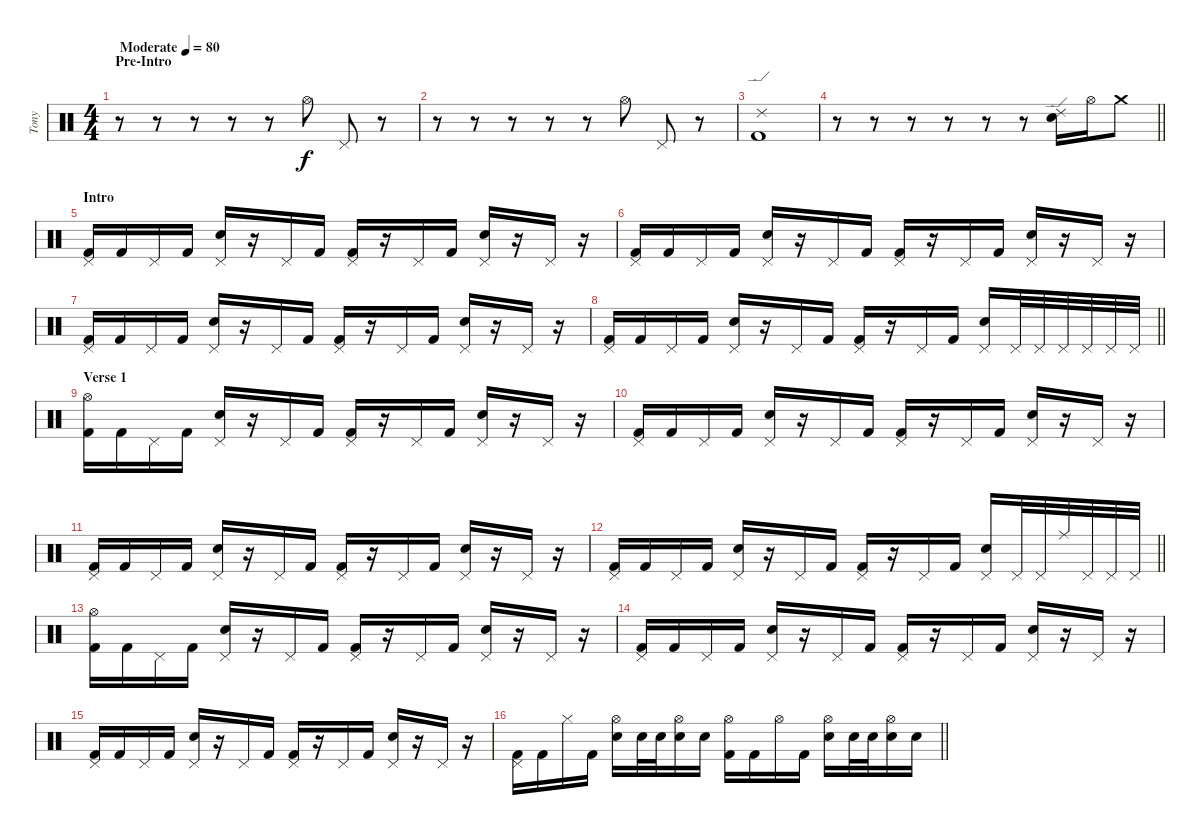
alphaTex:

\track ("Tony" "Tony") {instrument percussion}
\staff {score}
\articulation defaults
\ts (4 4)
\section ("" "Pre-Intro")
\tempo (80 "Moderate")
\clef neutral
\ks c
r.8{dy f} r.8 r.8 r.8 r.8 "Hi-Hat (open)".8 "Pedal Hi-Hat (hit)".8 r.8 |
r.8 r.8 r.8 r.8 r.8 "Hi-Hat (open)".8 "Pedal Hi-Hat (hit)".8 r.8 |
("Ride (edge) 2" "Kick (hit) 2").1 |
\barLineRight lightlight
r.8 r.8 r.8 r.8 r.8 r.8 ("Ride (edge) 2" "Electric Snare (hit)").16 "Hi-Hat (open)".16 "Crash medium (hit)".8 |
\section ("" "Intro")
("Pedal Hi-Hat (hit)" "Kick (hit) 2").16 "Kick (hit) 2".16 "Pedal Hi-Hat (hit)".16 "Kick (hit) 2".16 ("Pedal Hi-Hat (hit)" "Electric Snare (hit)").16 r.16 "Pedal Hi-Hat (hit)".16 "Kick (hit) 2".16 ("Pedal Hi-Hat (hit)" "Kick (hit) 2").16 r.16 "Pedal Hi-Hat (hit)".16 "Kick (hit) 2".16 ("Pedal Hi-Hat (hit)" "Electric Snare (hit)").16 r.16 "Pedal Hi-Hat (hit)".16 r.16 |
("Pedal Hi-Hat (hit)" "Kick (hit) 2").16 "Kick (hit) 2".16 "Pedal Hi-Hat (hit)".16 "Kick (hit) 2".16 ("Pedal Hi-Hat (hit)" "Electric Snare (hit)").16 r.16 "Pedal Hi-Hat (hit)".16 "Kick (hit) 2".16 ("Pedal Hi-Hat (hit)" "Kick (hit) 2").16 r.16 "Pedal Hi-Hat (hit)".16 "Kick (hit) 2".16 ("Pedal Hi-Hat (hit)" "Electric Snare (hit)").16 r.16 "Pedal Hi-Hat (hit)".16 r.16 |
("Pedal Hi-Hat (hit)" "Kick (hit) 2").16 "Kick (hit) 2".16 "Pedal Hi-Hat (hit)".16 "Kick (hit) 2".16 ("Pedal Hi-Hat (hit)" "Electric Snare (hit)").16 r.16 "Pedal Hi-Hat (hit)".16 "Kick (hit) 2".16 ("Pedal Hi-Hat (hit)" "Kick (hit) 2").16 r.16 "Pedal Hi-Hat (hit)".16 "Kick (hit) 2".16 ("Pedal Hi-Hat (hit)" "Electric Snare (hit)").16 r.16 "Pedal Hi-Hat (hit)".16 r.16 |
\barLineRight lightlight
("Pedal Hi-Hat (hit)" "Kick (hit) 2").16 "Kick (hit) 2".16 "Pedal Hi-Hat (hit)".16 "Kick (hit) 2".16 ("Pedal Hi-Hat (hit)" "Electric Snare (hit)").16 r.16 "Pedal Hi-Hat (hit)".16 "Kick (hit) 2".16 ("Pedal Hi-Hat (hit)" "Kick (hit) 2").16 r.16 "Pedal Hi-Hat (hit)".16 "Kick (hit) 2".16 ("Pedal Hi-Hat (hit)" "Electric Snare (hit)").16 "Pedal Hi-Hat (hit)".32 "Pedal Hi-Hat (hit)".32 "Pedal Hi-Hat (hit)".32 "Pedal Hi-Hat (hit)".32 "Pedal Hi-Hat (hit)".32 "Pedal Hi-Hat (hit)".32 |
\section ("" "Verse 1")
("Hi-Hat (open)" "Kick (hit) 2").16 "Kick (hit) 2".16 "Pedal Hi-Hat (hit)".16 "Kick (hit) 2".16 ("Pedal Hi-Hat (hit)" "Electric Snare (hit)").16 r.16 "Pedal Hi-Hat (hit)".16 "Kick (hit) 2".16 ("Pedal Hi-Hat (hit)" "Kick (hit) 2").16 r.16 "Pedal Hi-Hat (hit)".16 "Kick (hit) 2".16 ("Pedal Hi-Hat (hit)" "Electric Snare (hit)").16 r.16 "Pedal Hi-Hat (hit)".16 r.16 |
("Pedal Hi-Hat (hit)" "Kick (hit) 2").16 "Kick (hit) 2".16 "Pedal Hi-Hat (hit)".16 "Kick (hit) 2".16 ("Pedal Hi-Hat (hit)" "Electric Snare (hit)").16 r.16 "Pedal Hi-Hat (hit)".16 "Kick (hit) 2".16 ("Pedal Hi-Hat (hit)" "Kick (hit) 2").16 r.16 "Pedal Hi-Hat (hit)".16 "Kick (hit) 2".16 ("Pedal Hi-Hat (hit)" "Electric Snare (hit)").16 r.16 "Pedal Hi-Hat (hit)".16 r.16 |
("Pedal Hi-Hat (hit)" "Kick (hit) 2").16 "Kick (hit) 2".16 "Pedal Hi-Hat (hit)".16 "Kick (hit) 2".16 ("Pedal Hi-Hat (hit)" "Electric Snare (hit)").16 r.16 "Pedal Hi-Hat (hit)".16 "Kick (hit) 2".16 ("Pedal Hi-Hat (hit)" "Kick (hit) 2").16 r.16 "Pedal Hi-Hat (hit)".16 "Kick (hit) 2".16 ("Pedal Hi-Hat (hit)" "Electric Snare (hit)").16 r.16 "Pedal Hi-Hat (hit)".16 r.16 |
\barLineRight lightlight
("Pedal Hi-Hat (hit)" "Kick (hit) 2").16 "Kick (hit) 2".16 "Pedal Hi-Hat (hit)".16 "Kick (hit) 2".16 ("Pedal Hi-Hat (hit)" "Electric Snare (hit)").16 r.16 "Pedal Hi-Hat (hit)".16 "Kick (hit) 2".16 ("Pedal Hi-Hat (hit)" "Kick (hit) 2").16 r.16 "Pedal Hi-Hat (hit)".16 "Kick (hit) 2".16 ("Pedal Hi-Hat (hit)" "Electric Snare (hit)").16 "Pedal Hi-Hat (hit)".32 "Pedal Hi-Hat (hit)".32 "Ride (middle)".32 "Pedal Hi-Hat (hit)".32 "Pedal Hi-Hat (hit)".32 "Pedal Hi-Hat (hit)".32 |
("Hi-Hat (open)" "Kick (hit) 2").16 "Kick (hit) 2".16 "Pedal Hi-Hat (hit)".16 "Kick (hit) 2".16 ("Pedal Hi-Hat (hit)" "Electric Snare (hit)").16 r.16 "Pedal Hi-Hat (hit)".16 "Kick (hit) 2".16 ("Pedal Hi-Hat (hit)" "Kick (hit) 2").16 r.16 "Pedal Hi-Hat (hit)".16 "Kick (hit) 2".16 ("Pedal Hi-Hat (hit)" "Electric Snare (hit)").16 r.16 "Pedal Hi-Hat (hit)".16 r.16 |
("Pedal Hi-Hat (hit)" "Kick (hit) 2").16 "Kick (hit) 2".16 "Pedal Hi-Hat (hit)".16 "Kick (hit) 2".16 ("Pedal Hi-Hat (hit)" "Electric Snare (hit)").16 r.16 "Pedal Hi-Hat (hit)".16 "Kick (hit) 2".16 ("Pedal Hi-Hat (hit)" "Kick (hit) 2").16 r.16 "Pedal Hi-Hat (hit)".16 "Kick (hit) 2".16 ("Pedal Hi-Hat (hit)" "Electric Snare (hit)").16 r.16 "Pedal Hi-Hat (hit)".16 r.16 |
("Pedal Hi-Hat (hit)" "Kick (hit) 2").16 "Kick (hit) 2".16 "Pedal Hi-Hat (hit)".16 "Kick (hit) 2".16 ("Pedal Hi-Hat (hit)" "Electric Snare (hit)").16 r.16 "Pedal Hi-Hat (hit)".16 "Kick (hit) 2".16 ("Pedal Hi-Hat (hit)" "Kick (hit) 2").16 r.16 "Pedal Hi-Hat (hit)".16 "Kick (hit) 2".16 ("Pedal Hi-Hat (hit)" "Electric Snare (hit)").16 r.16 "Pedal Hi-Hat (hit)".16 r.16 |
\barLineRight lightlight
("Pedal Hi-Hat (hit)" "Kick (hit) 2").16 "Kick (hit) 2".16 "Hi-Hat (closed)".16 "Kick (hit) 2".16 ("Hi-Hat (open)" "Electric Snare (hit)").16 "Electric Snare (hit)".32 "Electric Snare (hit)".32 ("Hi-Hat (open)" "Electric Snare (hit)").16 "Electric Snare (hit)".16 ("Hi-Hat (open)" "Kick (hit) 2").16 "Kick (hit) 2".16 "Hi-Hat (open)".16 "Kick (hit) 2".16 ("Hi-Hat (open)" "Electric Snare (hit)").16 "Electric Snare (hit)".32 "Electric Snare (hit)".32 ("Hi-Hat (open)" "Electric Snare (hit)").16 "Electric Snare (hit)".16
